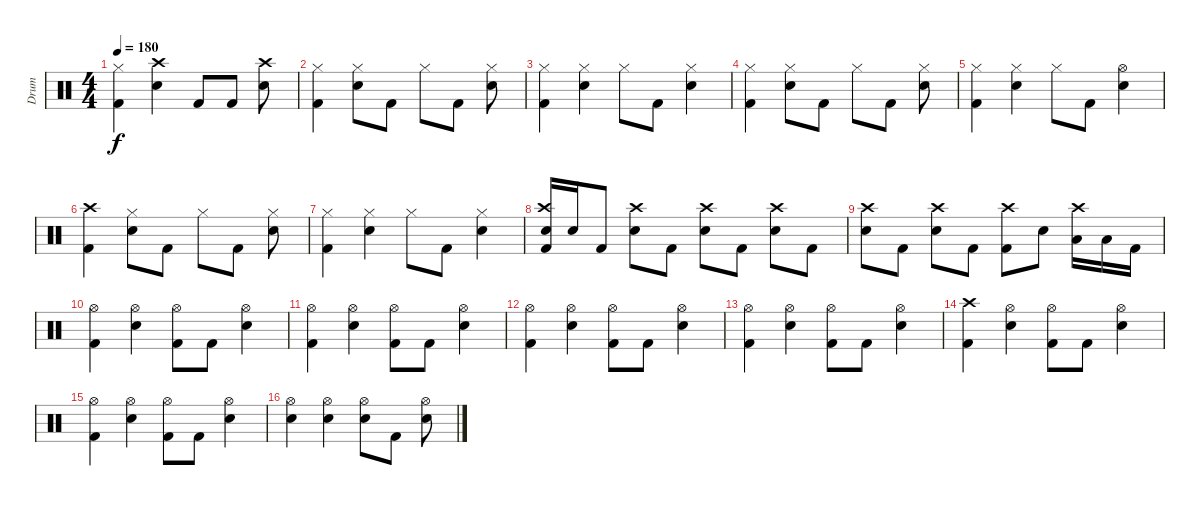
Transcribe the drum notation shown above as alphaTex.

\track ("Drum" "Drum") {instrument percussion}
\staff {score}
\articulation defaults
\ts (4 4)
\tempo 180
\clef neutral
\ks c
("Hi-Hat (closed)" "Kick (hit) 2").4{dy f} ("Crash high (hit)" "Electric Snare (hit)").4 "Kick (hit) 2".8 "Kick (hit) 2".8 ("Crash high (hit)" "Electric Snare (hit)").8 |
("Hi-Hat (closed)" "Kick (hit) 2").4 ("Hi-Hat (closed)" "Electric Snare (hit)").8 "Kick (hit) 2".8 "Hi-Hat (closed)".8 "Kick (hit) 2".8 ("Hi-Hat (closed)" "Electric Snare (hit)").8 |
("Hi-Hat (closed)" "Kick (hit) 2").4 ("Hi-Hat (closed)" "Electric Snare (hit)").4 "Hi-Hat (closed)".8 "Kick (hit) 2".8 ("Hi-Hat (closed)" "Electric Snare (hit)").4 |
("Hi-Hat (closed)" "Kick (hit) 2").4 ("Hi-Hat (closed)" "Electric Snare (hit)").8 "Kick (hit) 2".8 "Hi-Hat (closed)".8 "Kick (hit) 2".8 ("Hi-Hat (closed)" "Electric Snare (hit)").8 |
("Hi-Hat (closed)" "Kick (hit) 2").4 ("Hi-Hat (closed)" "Electric Snare (hit)").4 "Hi-Hat (closed)".8 "Kick (hit) 2".8 ("Hi-Hat (open)" "Electric Snare (hit)").4 |
("Crash high (hit)" "Kick (hit) 2").4 ("Hi-Hat (closed)" "Electric Snare (hit)").8 "Kick (hit) 2".8 "Hi-Hat (closed)".8 "Kick (hit) 2".8 ("Hi-Hat (closed)" "Electric Snare (hit)").8 |
("Hi-Hat (closed)" "Kick (hit) 2").4 ("Hi-Hat (closed)" "Electric Snare (hit)").4 "Hi-Hat (closed)".8 "Kick (hit) 2".8 ("Hi-Hat (closed)" "Electric Snare (hit)").4 |
("Crash high (hit)" "Electric Snare (hit)" "Kick (hit) 2").16 "Electric Snare (hit)".16 "Kick (hit) 2".8 ("Crash high (hit)" "Electric Snare (hit)").8 "Kick (hit) 2".8 ("Crash high (hit)" "Electric Snare (hit)").8 "Kick (hit) 2".8 ("Crash high (hit)" "Electric Snare (hit)").8 "Kick (hit) 2".8 |
("Crash high (hit)" "Electric Snare (hit)").8 "Kick (hit) 2".8 ("Crash high (hit)" "Electric Snare (hit)").8 "Kick (hit) 2".8 ("Crash high (hit)" "Kick (hit) 2").8 "Electric Snare (hit)".8 ("Crash high (hit)" "Low Tom (hit)").16 "Low Tom (hit)".16 "Kick (hit) 2".16 |
("Hi-Hat (open)" "Kick (hit) 2").4 ("Hi-Hat (open)" "Electric Snare (hit)").4 ("Hi-Hat (open)" "Kick (hit) 2").8 "Kick (hit) 2".8 ("Hi-Hat (open)" "Electric Snare (hit)").4 |
("Hi-Hat (open)" "Kick (hit) 2").4 ("Hi-Hat (open)" "Electric Snare (hit)").4 ("Hi-Hat (open)" "Kick (hit) 2").8 "Kick (hit) 2".8 ("Hi-Hat (open)" "Electric Snare (hit)").4 |
("Hi-Hat (open)" "Kick (hit) 2").4 ("Hi-Hat (open)" "Electric Snare (hit)").4 ("Hi-Hat (open)" "Kick (hit) 2").8 "Kick (hit) 2".8 ("Hi-Hat (open)" "Electric Snare (hit)").4 |
("Hi-Hat (open)" "Kick (hit) 2").4 ("Hi-Hat (open)" "Electric Snare (hit)").4 ("Hi-Hat (open)" "Kick (hit) 2").8 "Kick (hit) 2".8 ("Hi-Hat (open)" "Electric Snare (hit)").4 |
("Crash high (hit)" "Kick (hit) 2").4 ("Hi-Hat (open)" "Electric Snare (hit)").4 ("Hi-Hat (open)" "Kick (hit) 2").8 "Kick (hit) 2".8 ("Hi-Hat (open)" "Electric Snare (hit)").4 |
("Hi-Hat (open)" "Kick (hit) 2").4 ("Hi-Hat (open)" "Electric Snare (hit)").4 ("Hi-Hat (open)" "Kick (hit) 2").8 "Kick (hit) 2".8 ("Hi-Hat (open)" "Electric Snare (hit)").4 |
("Hi-Hat (open)" "Electric Snare (hit)").4 ("Hi-Hat (open)" "Electric Snare (hit)").4 ("Hi-Hat (open)" "Electric Snare (hit)").8 "Kick (hit) 2".8 ("Hi-Hat (open)" "Electric Snare (hit)").8
